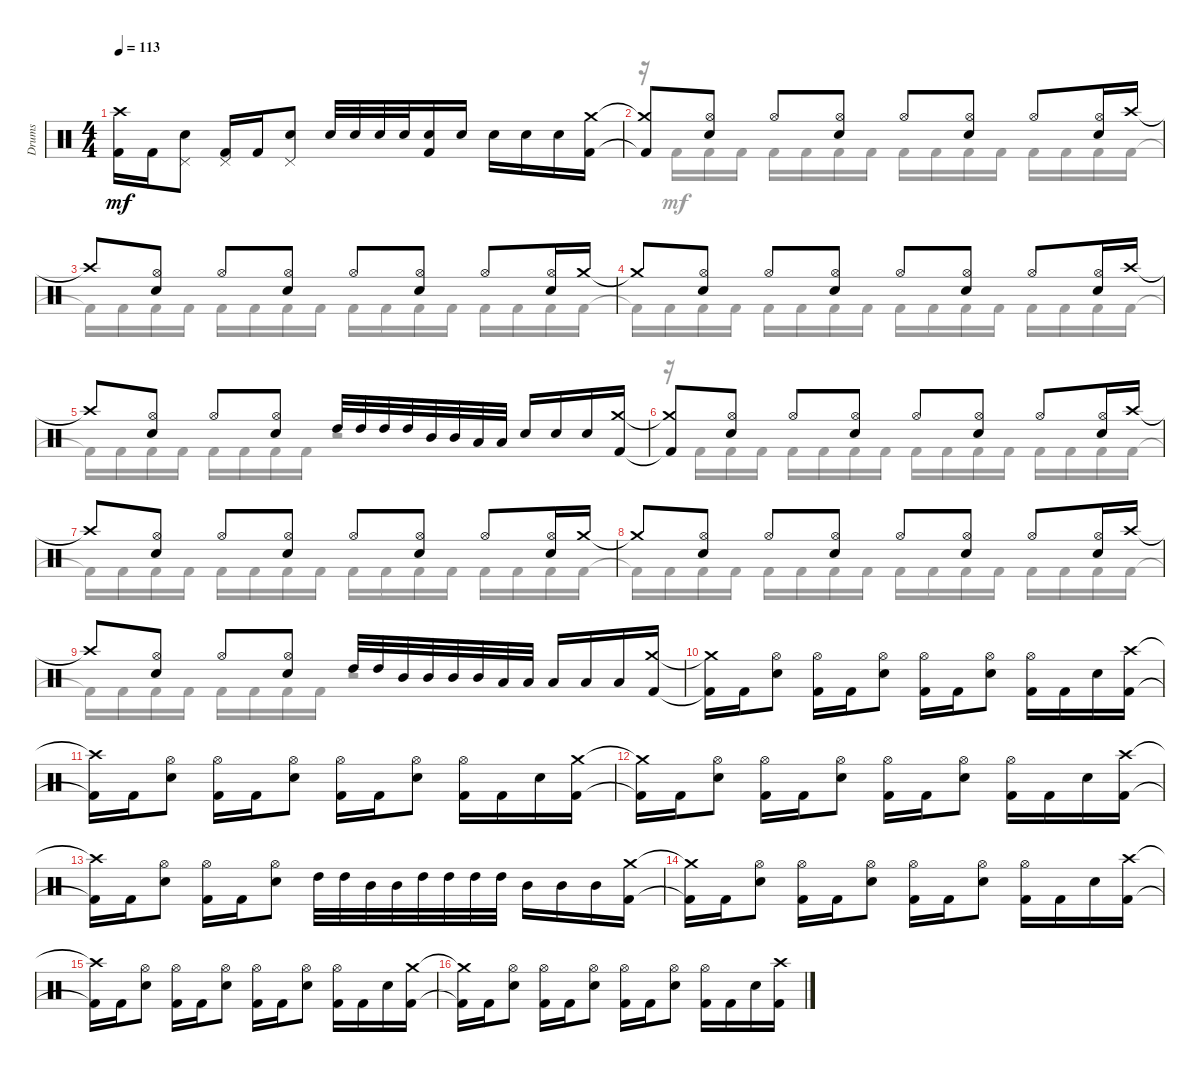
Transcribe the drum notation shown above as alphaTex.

\track ("Drums" "Drums") {instrument percussion}
\staff {score}
\articulation defaults
\voice
\ts (4 4)
\tempo 113
\clef neutral
\ks c
("Crash high (hit)"{t} "Kick (hit) 2"{t}).16{dy mf} "Kick (hit) 2".16 ("Pedal Hi-Hat (hit)" "Snare (hit) 2").8 ("Pedal Hi-Hat (hit)" "Kick (hit) 2").16 "Kick (hit) 2".16 ("Pedal Hi-Hat (hit)" "Snare (hit) 2").8 "Snare (hit) 2".32 "Snare (hit) 2".32 "Snare (hit) 2".32 "Snare (hit) 2".32 ("Snare (hit) 2" "Kick (hit) 2").16 "Snare (hit) 2".16 "Snare (hit) 2".16 "Snare (hit) 2".16 "Snare (hit) 2".16 ("Crash medium (hit)" "Kick (hit) 2").16 |
("Crash medium (hit)"{t} "Kick (hit) 2"{t}).8 ("Hi-Hat (open)" "Snare (hit) 2").8 "Hi-Hat (open)".8 ("Hi-Hat (open)" "Snare (hit) 2").8 "Hi-Hat (open)".8 ("Hi-Hat (open)" "Snare (hit) 2").8 "Hi-Hat (open)".8 ("Hi-Hat (open)" "Snare (hit) 2").16 "Crash high (hit)".16 |
"Crash high (hit)"{t}.8 ("Hi-Hat (open)" "Snare (hit) 2").8 "Hi-Hat (open)".8 ("Hi-Hat (open)" "Snare (hit) 2").8 "Hi-Hat (open)".8 ("Hi-Hat (open)" "Snare (hit) 2").8 "Hi-Hat (open)".8 ("Hi-Hat (open)" "Snare (hit) 2").16 "Crash medium (hit)".16 |
"Crash medium (hit)"{t}.8 ("Hi-Hat (open)" "Snare (hit) 2").8 "Hi-Hat (open)".8 ("Hi-Hat (open)" "Snare (hit) 2").8 "Hi-Hat (open)".8 ("Hi-Hat (open)" "Snare (hit) 2").8 "Hi-Hat (open)".8 ("Hi-Hat (open)" "Snare (hit) 2").16 "Crash high (hit)".16 |
"Crash high (hit)"{t}.8 ("Hi-Hat (open)" "Snare (hit) 2").8 "Hi-Hat (open)".8 ("Hi-Hat (open)" "Snare (hit) 2").8 "High Tom (hit)".32 "High Tom (hit)".32 "High Tom (hit)".32 "High Tom (hit)".32 "Mid Tom (hit)".32 "Mid Tom (hit)".32 "Low Tom (hit)".32 "Low Tom (hit)".32 "Snare (hit) 2".16 "Snare (hit) 2".16 "Snare (hit) 2".16 ("Crash medium (hit)" "Kick (hit) 2").16 |
("Crash medium (hit)"{t} "Kick (hit) 2"{t}).8 ("Hi-Hat (open)" "Snare (hit) 2").8 "Hi-Hat (open)".8 ("Hi-Hat (open)" "Snare (hit) 2").8 "Hi-Hat (open)".8 ("Hi-Hat (open)" "Snare (hit) 2").8 "Hi-Hat (open)".8 ("Hi-Hat (open)" "Snare (hit) 2").16 "Crash high (hit)".16 |
"Crash high (hit)"{t}.8 ("Hi-Hat (open)" "Snare (hit) 2").8 "Hi-Hat (open)".8 ("Hi-Hat (open)" "Snare (hit) 2").8 "Hi-Hat (open)".8 ("Hi-Hat (open)" "Snare (hit) 2").8 "Hi-Hat (open)".8 ("Hi-Hat (open)" "Snare (hit) 2").16 "Crash medium (hit)".16 |
"Crash medium (hit)"{t}.8 ("Hi-Hat (open)" "Snare (hit) 2").8 "Hi-Hat (open)".8 ("Hi-Hat (open)" "Snare (hit) 2").8 "Hi-Hat (open)".8 ("Hi-Hat (open)" "Snare (hit) 2").8 "Hi-Hat (open)".8 ("Hi-Hat (open)" "Snare (hit) 2").16 "Crash high (hit)".16 |
"Crash high (hit)"{t}.8 ("Hi-Hat (open)" "Snare (hit) 2").8 "Hi-Hat (open)".8 ("Hi-Hat (open)" "Snare (hit) 2").8 "High Tom (hit)".32 "High Tom (hit)".32 "Mid Tom (hit)".32 "Mid Tom (hit)".32 "Mid Tom (hit)".32 "Mid Tom (hit)".32 "Low Tom (hit)".32 "Low Tom (hit)".32 "Low Tom (hit)".16 "Low Tom (hit)".16 "Low Tom (hit)".16 ("Crash medium (hit)" "Kick (hit) 2").16 |
("Crash medium (hit)"{t} "Kick (hit) 2"{t}).16 "Kick (hit) 2".16 ("Hi-Hat (open)" "Snare (hit) 2").8 ("Hi-Hat (open)" "Kick (hit) 2").16 "Kick (hit) 2".16 ("Hi-Hat (open)" "Snare (hit) 2").8 ("Hi-Hat (open)" "Kick (hit) 2").16 "Kick (hit) 2".16 ("Hi-Hat (open)" "Snare (hit) 2").8 ("Hi-Hat (open)" "Kick (hit) 2").16 "Kick (hit) 2".16 "Snare (hit) 2".16 ("Crash high (hit)" "Kick (hit) 2").16 |
("Crash high (hit)"{t} "Kick (hit) 2"{t}).16 "Kick (hit) 2".16 ("Hi-Hat (open)" "Snare (hit) 2").8 ("Hi-Hat (open)" "Kick (hit) 2").16 "Kick (hit) 2".16 ("Hi-Hat (open)" "Snare (hit) 2").8 ("Hi-Hat (open)" "Kick (hit) 2").16 "Kick (hit) 2".16 ("Hi-Hat (open)" "Snare (hit) 2").8 ("Hi-Hat (open)" "Kick (hit) 2").16 "Kick (hit) 2".16 "Snare (hit) 2".16 ("Crash medium (hit)" "Kick (hit) 2").16 |
("Crash medium (hit)"{t} "Kick (hit) 2"{t}).16 "Kick (hit) 2".16 ("Hi-Hat (open)" "Snare (hit) 2").8 ("Hi-Hat (open)" "Kick (hit) 2").16 "Kick (hit) 2".16 ("Hi-Hat (open)" "Snare (hit) 2").8 ("Hi-Hat (open)" "Kick (hit) 2").16 "Kick (hit) 2".16 ("Hi-Hat (open)" "Snare (hit) 2").8 ("Hi-Hat (open)" "Kick (hit) 2").16 "Kick (hit) 2".16 "Snare (hit) 2".16 ("Crash high (hit)" "Kick (hit) 2").16 |
("Crash high (hit)"{t} "Kick (hit) 2"{t}).16 "Kick (hit) 2".16 ("Hi-Hat (open)" "Snare (hit) 2").8 ("Hi-Hat (open)" "Kick (hit) 2").16 "Kick (hit) 2".16 ("Hi-Hat (open)" "Snare (hit) 2").8 "High Tom (hit)".32 "High Tom (hit)".32 "Mid Tom (hit)".32 "Mid Tom (hit)".32 "High Tom (hit)".32 "High Tom (hit)".32 "High Tom (hit)".32 "High Tom (hit)".32 "Mid Tom (hit)".16 "Mid Tom (hit)".16 "Mid Tom (hit)".16 ("Crash medium (hit)" "Kick (hit) 2").16 |
("Crash medium (hit)"{t} "Kick (hit) 2"{t}).16 "Kick (hit) 2".16 ("Hi-Hat (open)" "Snare (hit) 2").8 ("Hi-Hat (open)" "Kick (hit) 2").16 "Kick (hit) 2".16 ("Hi-Hat (open)" "Snare (hit) 2").8 ("Hi-Hat (open)" "Kick (hit) 2").16 "Kick (hit) 2".16 ("Hi-Hat (open)" "Snare (hit) 2").8 ("Hi-Hat (open)" "Kick (hit) 2").16 "Kick (hit) 2".16 "Snare (hit) 2".16 ("Crash high (hit)" "Kick (hit) 2").16 |
("Crash high (hit)"{t} "Kick (hit) 2"{t}).16 "Kick (hit) 2".16 ("Hi-Hat (open)" "Snare (hit) 2").8 ("Hi-Hat (open)" "Kick (hit) 2").16 "Kick (hit) 2".16 ("Hi-Hat (open)" "Snare (hit) 2").8 ("Hi-Hat (open)" "Kick (hit) 2").16 "Kick (hit) 2".16 ("Hi-Hat (open)" "Snare (hit) 2").8 ("Hi-Hat (open)" "Kick (hit) 2").16 "Kick (hit) 2".16 "Snare (hit) 2".16 ("Crash medium (hit)" "Kick (hit) 2").16 |
("Crash medium (hit)"{t} "Kick (hit) 2"{t}).16 "Kick (hit) 2".16 ("Hi-Hat (open)" "Snare (hit) 2").8 ("Hi-Hat (open)" "Kick (hit) 2").16 "Kick (hit) 2".16 ("Hi-Hat (open)" "Snare (hit) 2").8 ("Hi-Hat (open)" "Kick (hit) 2").16 "Kick (hit) 2".16 ("Hi-Hat (open)" "Snare (hit) 2").8 ("Hi-Hat (open)" "Kick (hit) 2").16 "Kick (hit) 2".16 "Snare (hit) 2".16 ("Crash high (hit)" "Kick (hit) 2").16
\voice
\clef neutral
\ottava regular
\simile none
\ks c
|
r.16 "Kick (hit) 2".16 "Kick (hit) 2".16 "Kick (hit) 2".16 "Kick (hit) 2".16 "Kick (hit) 2".16 "Kick (hit) 2".16 "Kick (hit) 2".16 "Kick (hit) 2".16 "Kick (hit) 2".16 "Kick (hit) 2".16 "Kick (hit) 2".16 "Kick (hit) 2".16 "Kick (hit) 2".16 "Kick (hit) 2".16 "Kick (hit) 2".16 |
"Kick (hit) 2"{t}.16 "Kick (hit) 2".16 "Kick (hit) 2".16 "Kick (hit) 2".16 "Kick (hit) 2".16 "Kick (hit) 2".16 "Kick (hit) 2".16 "Kick (hit) 2".16 "Kick (hit) 2".16 "Kick (hit) 2".16 "Kick (hit) 2".16 "Kick (hit) 2".16 "Kick (hit) 2".16 "Kick (hit) 2".16 "Kick (hit) 2".16 "Kick (hit) 2".16 |
"Kick (hit) 2"{t}.16 "Kick (hit) 2".16 "Kick (hit) 2".16 "Kick (hit) 2".16 "Kick (hit) 2".16 "Kick (hit) 2".16 "Kick (hit) 2".16 "Kick (hit) 2".16 "Kick (hit) 2".16 "Kick (hit) 2".16 "Kick (hit) 2".16 "Kick (hit) 2".16 "Kick (hit) 2".16 "Kick (hit) 2".16 "Kick (hit) 2".16 "Kick (hit) 2".16 |
"Kick (hit) 2"{t}.16 "Kick (hit) 2".16 "Kick (hit) 2".16 "Kick (hit) 2".16 "Kick (hit) 2".16 "Kick (hit) 2".16 "Kick (hit) 2".16 "Kick (hit) 2".16 r.2 |
r.16 "Kick (hit) 2".16 "Kick (hit) 2".16 "Kick (hit) 2".16 "Kick (hit) 2".16 "Kick (hit) 2".16 "Kick (hit) 2".16 "Kick (hit) 2".16 "Kick (hit) 2".16 "Kick (hit) 2".16 "Kick (hit) 2".16 "Kick (hit) 2".16 "Kick (hit) 2".16 "Kick (hit) 2".16 "Kick (hit) 2".16 "Kick (hit) 2".16 |
"Kick (hit) 2"{t}.16 "Kick (hit) 2".16 "Kick (hit) 2".16 "Kick (hit) 2".16 "Kick (hit) 2".16 "Kick (hit) 2".16 "Kick (hit) 2".16 "Kick (hit) 2".16 "Kick (hit) 2".16 "Kick (hit) 2".16 "Kick (hit) 2".16 "Kick (hit) 2".16 "Kick (hit) 2".16 "Kick (hit) 2".16 "Kick (hit) 2".16 "Kick (hit) 2".16 |
"Kick (hit) 2"{t}.16 "Kick (hit) 2".16 "Kick (hit) 2".16 "Kick (hit) 2".16 "Kick (hit) 2".16 "Kick (hit) 2".16 "Kick (hit) 2".16 "Kick (hit) 2".16 "Kick (hit) 2".16 "Kick (hit) 2".16 "Kick (hit) 2".16 "Kick (hit) 2".16 "Kick (hit) 2".16 "Kick (hit) 2".16 "Kick (hit) 2".16 "Kick (hit) 2".16 |
"Kick (hit) 2"{t}.16 "Kick (hit) 2".16 "Kick (hit) 2".16 "Kick (hit) 2".16 "Kick (hit) 2".16 "Kick (hit) 2".16 "Kick (hit) 2".16 "Kick (hit) 2".16 r.2 |
|
|
|
|
|
|
